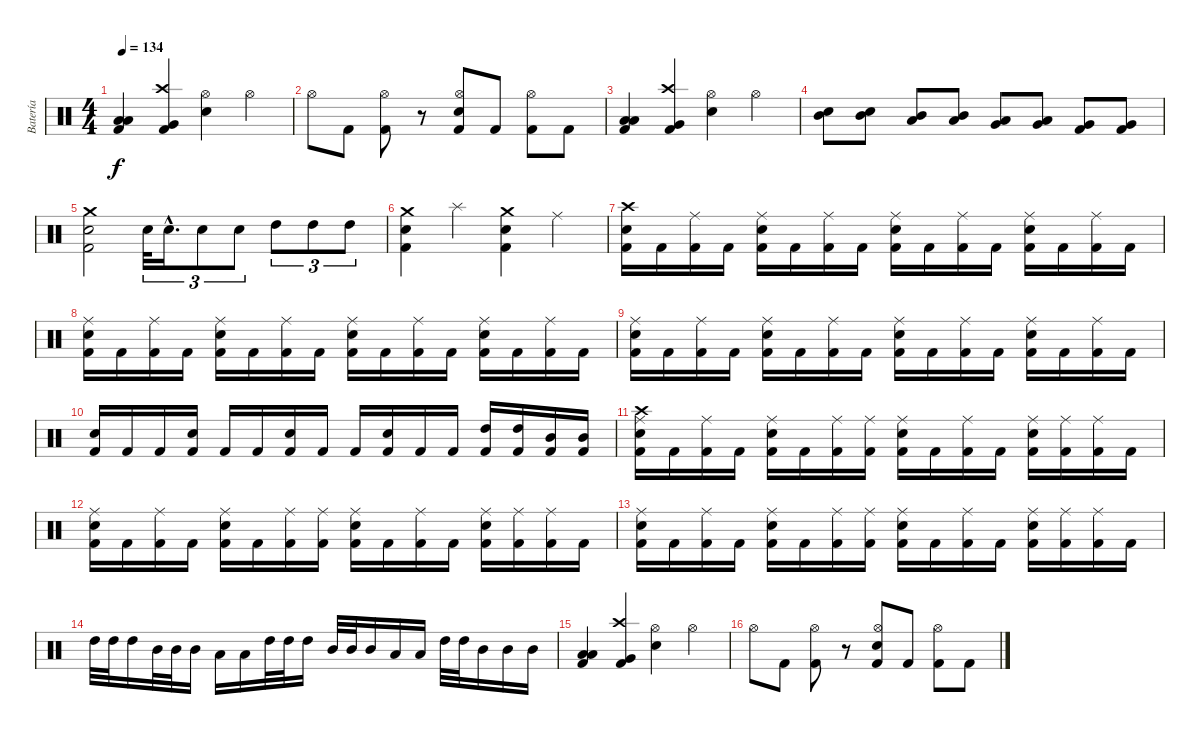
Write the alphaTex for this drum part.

\track ("Batería" "Batería") {instrument percussion}
\staff {score}
\articulation defaults
\ts (4 4)
\tempo 134
\clef neutral
\ks c
("Low Tom (hit)" "Low Floor Tom (hit)" "Kick (hit) 2").4{dy f} ("Crash high (hit)" "Very Low Tom (hit)" "Kick (hit) 2").4 ("Hi-Hat (open)" "Electric Snare (hit)").4 "Hi-Hat (open)".4 |
"Hi-Hat (open)".8 "Kick (hit) 2".8 ("Hi-Hat (open)" "Kick (hit) 2").8 r.8 ("Hi-Hat (open)" "Electric Snare (hit)" "Kick (hit) 2").8 "Kick (hit) 2".8 ("Hi-Hat (open)" "Kick (hit) 2").8 "Kick (hit) 2".8 |
("Low Tom (hit)" "Low Floor Tom (hit)" "Kick (hit) 2").4 ("Crash high (hit)" "Very Low Tom (hit)" "Kick (hit) 2").4 ("Hi-Hat (open)" "Electric Snare (hit)").4 "Hi-Hat (open)".4 |
("Electric Snare (hit)" "Mid Tom (hit)").8 ("Electric Snare (hit)" "Mid Tom (hit)").8 ("Mid Tom (hit)" "Low Tom (hit)").8 ("Mid Tom (hit)" "Low Tom (hit)").8 ("Low Tom (hit)" "Very Low Tom (hit)").8 ("Low Tom (hit)" "Very Low Tom (hit)").8 ("Very Low Tom (hit)" "Kick (hit) 2").8 ("Very Low Tom (hit)" "Kick (hit) 2").8 |
("Crash medium (hit)" "Electric Snare (hit)" "Kick (hit) 2").2 "Electric Snare (hit)".32{tu (3 2)} "Electric Snare (hit)"{hac}.16{d tu (3 2)} "Electric Snare (hit)".8{tu (3 2)} "Electric Snare (hit)".8{tu (3 2)} "High Tom (hit)".8{tu (3 2)} "High Tom (hit)".8{tu (3 2)} "High Tom (hit)".8{tu (3 2)} |
("Crash medium (hit)" "Electric Snare (hit)" "Kick (hit) 2").4 "Splash (hit)".4 ("Crash medium (hit)" "Electric Snare (hit)" "Kick (hit) 2").4 "Ride (middle)".4 |
("Crash high (hit)" "Electric Snare (hit)" "Kick (hit) 2").16 "Kick (hit) 2".16 ("Ride (middle)" "Kick (hit) 2").16 "Kick (hit) 2".16 ("Ride (middle)" "Electric Snare (hit)" "Kick (hit) 2").16 "Kick (hit) 2".16 ("Ride (middle)" "Kick (hit) 2").16 "Kick (hit) 2".16 ("Ride (middle)" "Electric Snare (hit)" "Kick (hit) 2").16 "Kick (hit) 2".16 ("Ride (middle)" "Kick (hit) 2").16 "Kick (hit) 2".16 ("Ride (middle)" "Electric Snare (hit)" "Kick (hit) 2").16 "Kick (hit) 2".16 ("Ride (middle)" "Kick (hit) 2").16 "Kick (hit) 2".16 |
("Ride (middle)" "Electric Snare (hit)" "Kick (hit) 2").16 "Kick (hit) 2".16 ("Ride (middle)" "Kick (hit) 2").16 "Kick (hit) 2".16 ("Ride (middle)" "Electric Snare (hit)" "Kick (hit) 2").16 "Kick (hit) 2".16 ("Ride (middle)" "Kick (hit) 2").16 "Kick (hit) 2".16 ("Ride (middle)" "Electric Snare (hit)" "Kick (hit) 2").16 "Kick (hit) 2".16 ("Ride (middle)" "Kick (hit) 2").16 "Kick (hit) 2".16 ("Ride (middle)" "Electric Snare (hit)" "Kick (hit) 2").16 "Kick (hit) 2".16 ("Ride (middle)" "Kick (hit) 2").16 "Kick (hit) 2".16 |
("Ride (middle)" "Electric Snare (hit)" "Kick (hit) 2").16 "Kick (hit) 2".16 ("Ride (middle)" "Kick (hit) 2").16 "Kick (hit) 2".16 ("Ride (middle)" "Electric Snare (hit)" "Kick (hit) 2").16 "Kick (hit) 2".16 ("Ride (middle)" "Kick (hit) 2").16 "Kick (hit) 2".16 ("Ride (middle)" "Electric Snare (hit)" "Kick (hit) 2").16 "Kick (hit) 2".16 ("Ride (middle)" "Kick (hit) 2").16 "Kick (hit) 2".16 ("Ride (middle)" "Electric Snare (hit)" "Kick (hit) 2").16 "Kick (hit) 2".16 ("Ride (middle)" "Kick (hit) 2").16 "Kick (hit) 2".16 |
("Electric Snare (hit)" "Kick (hit) 2").16 "Kick (hit) 2".16 "Kick (hit) 2".16 ("Electric Snare (hit)" "Kick (hit) 2").16 "Kick (hit) 2".16 "Kick (hit) 2".16 ("Electric Snare (hit)" "Kick (hit) 2").16 "Kick (hit) 2".16 "Kick (hit) 2".16 ("Electric Snare (hit)" "Kick (hit) 2").16 "Kick (hit) 2".16 "Kick (hit) 2".16 ("High Tom (hit)" "Kick (hit) 2").16 ("High Tom (hit)" "Kick (hit) 2").16 ("Mid Tom (hit)" "Kick (hit) 2").16 ("Mid Tom (hit)" "Kick (hit) 2").16 |
("Crash high (hit)" "Ride (middle)" "Electric Snare (hit)" "Kick (hit) 2").16 "Kick (hit) 2".16 ("Ride (middle)" "Kick (hit) 2").16 "Kick (hit) 2".16 ("Ride (middle)" "Electric Snare (hit)" "Kick (hit) 2").16 "Kick (hit) 2".16 ("Ride (middle)" "Kick (hit) 2").16 ("Ride (middle)" "Kick (hit) 2").16 ("Ride (middle)" "Electric Snare (hit)" "Kick (hit) 2").16 "Kick (hit) 2".16 ("Ride (middle)" "Kick (hit) 2").16 "Kick (hit) 2".16 ("Ride (middle)" "Electric Snare (hit)" "Kick (hit) 2").16 ("Ride (middle)" "Kick (hit) 2").16 ("Ride (middle)" "Kick (hit) 2").16 "Kick (hit) 2".16 |
("Ride (middle)" "Electric Snare (hit)" "Kick (hit) 2").16 "Kick (hit) 2".16 ("Ride (middle)" "Kick (hit) 2").16 "Kick (hit) 2".16 ("Ride (middle)" "Electric Snare (hit)" "Kick (hit) 2").16 "Kick (hit) 2".16 ("Ride (middle)" "Kick (hit) 2").16 ("Ride (middle)" "Kick (hit) 2").16 ("Ride (middle)" "Electric Snare (hit)" "Kick (hit) 2").16 "Kick (hit) 2".16 ("Ride (middle)" "Kick (hit) 2").16 "Kick (hit) 2".16 ("Ride (middle)" "Electric Snare (hit)" "Kick (hit) 2").16 ("Ride (middle)" "Kick (hit) 2").16 ("Ride (middle)" "Kick (hit) 2").16 "Kick (hit) 2".16 |
("Ride (middle)" "Electric Snare (hit)" "Kick (hit) 2").16 "Kick (hit) 2".16 ("Ride (middle)" "Kick (hit) 2").16 "Kick (hit) 2".16 ("Ride (middle)" "Electric Snare (hit)" "Kick (hit) 2").16 "Kick (hit) 2".16 ("Ride (middle)" "Kick (hit) 2").16 ("Ride (middle)" "Kick (hit) 2").16 ("Ride (middle)" "Electric Snare (hit)" "Kick (hit) 2").16 "Kick (hit) 2".16 ("Ride (middle)" "Kick (hit) 2").16 "Kick (hit) 2".16 ("Ride (middle)" "Electric Snare (hit)" "Kick (hit) 2").16 ("Ride (middle)" "Kick (hit) 2").16 ("Ride (middle)" "Kick (hit) 2").16 "Kick (hit) 2".16 |
"High Tom (hit)".32 "High Tom (hit)".32 "High Tom (hit)".16 "Mid Tom (hit)".32 "Mid Tom (hit)".32 "Mid Tom (hit)".16 "Low Tom (hit)".16 "Low Tom (hit)".16 "High Tom (hit)".32 "High Tom (hit)".32 "High Tom (hit)".16 "Mid Tom (hit)".32 "Mid Tom (hit)".32 "Mid Tom (hit)".16 "Low Tom (hit)".16 "Low Tom (hit)".16 "High Tom (hit)".32 "High Tom (hit)".32 "Mid Tom (hit)".16 "Mid Tom (hit)".16 "Mid Tom (hit)".16 |
("Low Tom (hit)" "Low Floor Tom (hit)" "Kick (hit) 2").4 ("Crash high (hit)" "Very Low Tom (hit)" "Kick (hit) 2").4 ("Hi-Hat (open)" "Electric Snare (hit)").4 "Hi-Hat (open)".4 |
"Hi-Hat (open)".8 "Kick (hit) 2".8 ("Hi-Hat (open)" "Kick (hit) 2").8 r.8 ("Hi-Hat (open)" "Electric Snare (hit)" "Kick (hit) 2").8 "Kick (hit) 2".8 ("Hi-Hat (open)" "Kick (hit) 2").8 "Kick (hit) 2".8
